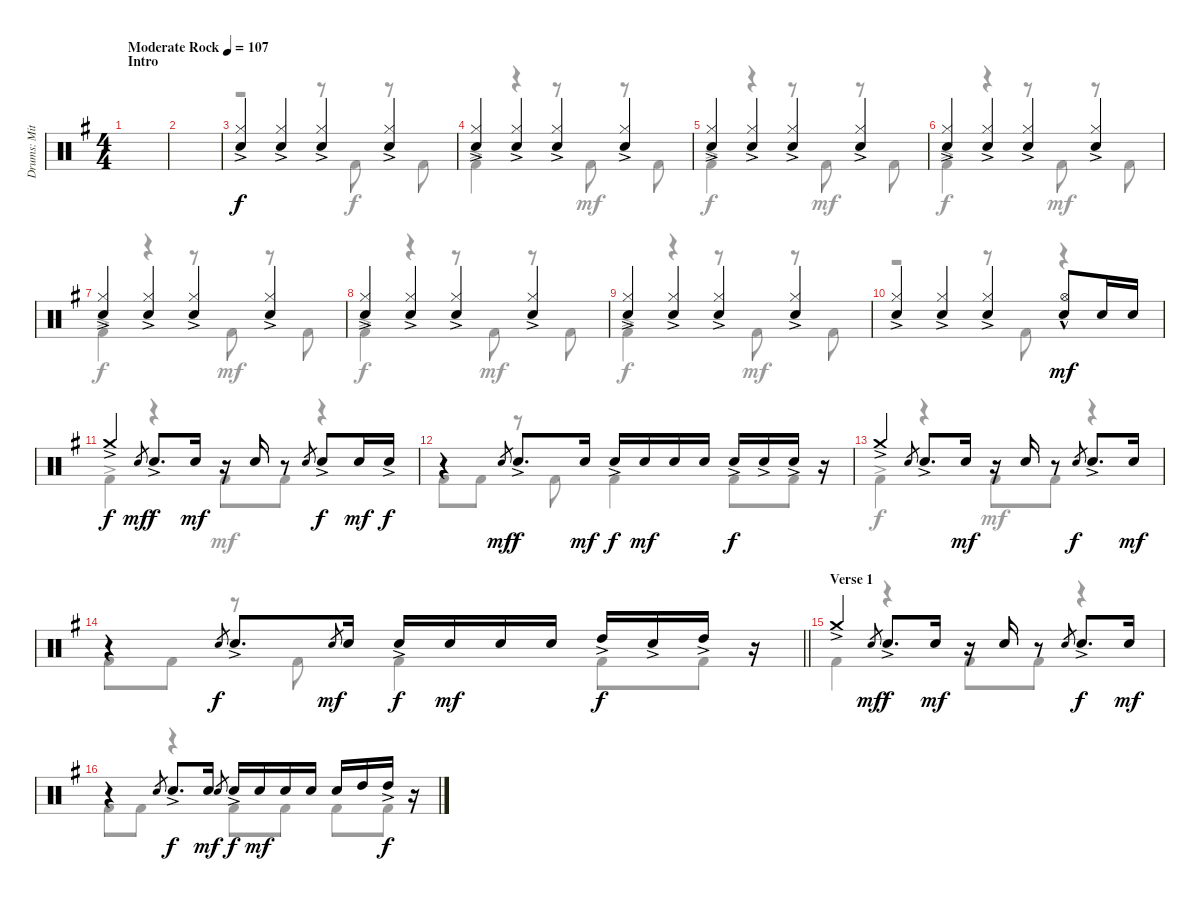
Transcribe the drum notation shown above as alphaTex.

\track ("Drums: Mitch Mitchell" "Drums: Mit") {instrument percussion}
\staff {score}
\articulation defaults
\voice
\ts (4 4)
\section ("" "Intro")
\tempo (107 "Moderate Rock")
\clef neutral
\ks g
|
|
("Hi-Hat (closed)"{ac} "Snare (hit) 2"{ac}).4 ("Hi-Hat (closed)"{ac} "Snare (hit) 2"{ac}).4 ("Hi-Hat (closed)"{ac} "Snare (hit) 2"{ac}).4 ("Hi-Hat (closed)"{ac} "Snare (hit) 2"{ac}).4 |
("Hi-Hat (closed)"{ac} "Snare (hit) 2"{ac}).4 ("Hi-Hat (closed)"{ac} "Snare (hit) 2"{ac}).4 ("Hi-Hat (closed)"{ac} "Snare (hit) 2"{ac}).4 ("Hi-Hat (closed)"{ac} "Snare (hit) 2"{ac}).4 |
("Hi-Hat (closed)"{ac} "Snare (hit) 2"{ac}).4 ("Hi-Hat (closed)"{ac} "Snare (hit) 2"{ac}).4 ("Hi-Hat (closed)"{ac} "Snare (hit) 2"{ac}).4 ("Hi-Hat (closed)"{ac} "Snare (hit) 2"{ac}).4 |
("Hi-Hat (closed)"{ac} "Snare (hit) 2"{ac}).4 ("Hi-Hat (closed)"{ac} "Snare (hit) 2"{ac}).4 ("Hi-Hat (closed)"{ac} "Snare (hit) 2"{ac}).4 ("Hi-Hat (closed)"{ac} "Snare (hit) 2"{ac}).4 |
("Hi-Hat (closed)"{ac} "Snare (hit) 2"{ac}).4 ("Hi-Hat (closed)"{ac} "Snare (hit) 2"{ac}).4 ("Hi-Hat (closed)"{ac} "Snare (hit) 2"{ac}).4 ("Hi-Hat (closed)"{ac} "Snare (hit) 2"{ac}).4 |
("Hi-Hat (closed)"{ac} "Snare (hit) 2"{ac}).4 ("Hi-Hat (closed)"{ac} "Snare (hit) 2"{ac}).4 ("Hi-Hat (closed)"{ac} "Snare (hit) 2"{ac}).4 ("Hi-Hat (closed)"{ac} "Snare (hit) 2"{ac}).4 |
("Hi-Hat (closed)"{ac} "Snare (hit) 2"{ac}).4 ("Hi-Hat (closed)"{ac} "Snare (hit) 2"{ac}).4 ("Hi-Hat (closed)"{ac} "Snare (hit) 2"{ac}).4 ("Hi-Hat (closed)"{ac} "Snare (hit) 2"{ac}).4 |
("Hi-Hat (closed)"{ac} "Snare (hit) 2"{ac}).4 ("Hi-Hat (closed)"{ac} "Snare (hit) 2"{ac}).4 ("Hi-Hat (closed)"{ac} "Snare (hit) 2"{ac}).4 ("Hi-Hat (open)"{hac} "Snare (hit) 2").8{dy mf} "Snare (hit) 2".16 "Snare (hit) 2".16 |
"Crash medium (hit)"{ac}.4{dy f} "Snare (hit) 2".8{gr dy mf} "Snare (hit) 2"{ac}.8{d dy f} "Snare (hit) 2".16{dy mf} r.16 "Snare (hit) 2".16 r.8 "Snare (hit) 2".8{gr} "Snare (hit) 2"{ac}.8{dy f} "Snare (hit) 2".16{dy mf} "Snare (hit) 2"{ac}.16{dy f} |
r.4 "Snare (hit) 2".8{gr dy mf} "Snare (hit) 2"{ac}.8{d dy f} "Snare (hit) 2".16{dy mf} "Snare (hit) 2"{ac}.16{dy f} "Snare (hit) 2".16{dy mf} "Snare (hit) 2".16 "Snare (hit) 2".16 "Snare (hit) 2"{ac}.16{dy f} "Snare (hit) 2"{ac}.16 "Snare (hit) 2"{ac}.16 r.16 |
"Crash medium (hit)"{ac}.4 "Snare (hit) 2".8{gr} "Snare (hit) 2"{ac}.8{d} "Snare (hit) 2".16{dy mf} r.16 "Snare (hit) 2".16 r.8 "Snare (hit) 2".8{gr dy f} "Snare (hit) 2"{ac}.8{d} "Snare (hit) 2".16{dy mf} |
\barLineRight lightlight
r.4 "Snare (hit) 2".8{gr dy f} "Snare (hit) 2"{ac}.8{d} "Snare (hit) 2".8{gr dy mf} "Snare (hit) 2".16 "Snare (hit) 2"{ac}.16{dy f} "Snare (hit) 2".16{dy mf} "Snare (hit) 2".16 "Snare (hit) 2".16 "High Tom (hit)"{ac}.16{dy f} "Snare (hit) 2"{ac}.16 "High Tom (hit)"{ac}.16 r.16 |
\section ("" "Verse 1")
"Crash medium (hit)"{ac}.4 "Snare (hit) 2".8{gr dy mf} "Snare (hit) 2"{ac}.8{d dy f} "Snare (hit) 2".16{dy mf} r.16 "Snare (hit) 2".16 r.8 "Snare (hit) 2".8{gr} "Snare (hit) 2"{ac}.8{d dy f} "Snare (hit) 2".16{dy mf} |
r.4 "Snare (hit) 2".8{gr} "Snare (hit) 2"{ac}.8{d dy f} "Snare (hit) 2".16{dy mf} "Snare (hit) 2".8{gr} "Snare (hit) 2"{ac}.16{dy f} "Snare (hit) 2".16{dy mf} "Snare (hit) 2".16 "Snare (hit) 2".16 "Snare (hit) 2".16 "High Tom (hit)".16 "High Tom (hit)"{ac}.16{dy f} r.16
\voice
\clef neutral
\ottava regular
\simile none
\ks g
|
|
r.2 r.8 "Kick (hit) 2".8 r.8 "Kick (hit) 2".8 |
"Kick (hit) 2"{ac}.4{dy f} r.4 r.8 "Kick (hit) 2".8{dy mf} r.8 "Kick (hit) 2".8 |
"Kick (hit) 2"{ac}.4{dy f} r.4 r.8 "Kick (hit) 2".8{dy mf} r.8 "Kick (hit) 2".8 |
"Kick (hit) 2"{ac}.4{dy f} r.4 r.8 "Kick (hit) 2".8{dy mf} r.8 "Kick (hit) 2".8 |
"Kick (hit) 2"{ac}.4{dy f} r.4 r.8 "Kick (hit) 2".8{dy mf} r.8 "Kick (hit) 2".8 |
"Kick (hit) 2"{ac}.4{dy f} r.4 r.8 "Kick (hit) 2".8{dy mf} r.8 "Kick (hit) 2".8 |
"Kick (hit) 2"{ac}.4{dy f} r.4 r.8 "Kick (hit) 2".8{dy mf} r.8 "Kick (hit) 2".8 |
r.2 r.8 "Kick (hit) 2".8 r.4 |
"Kick (hit) 2"{ac}.4{dy f} r.4 "Kick (hit) 2".8{dy mf} "Kick (hit) 2".8 r.4 |
"Kick (hit) 2".8 "Kick (hit) 2".8 r.8 "Kick (hit) 2".8 "Kick (hit) 2".4 "Kick (hit) 2".8 "Kick (hit) 2".8 |
"Kick (hit) 2"{ac}.4{dy f} r.4 "Kick (hit) 2".8{dy mf} "Kick (hit) 2".8 r.4 |
\barLineRight lightlight "Kick (hit) 2".8 "Kick (hit) 2".8
r.8 "Kick (hit) 2".8 "Kick (hit) 2".4 "Kick (hit) 2".8 "Kick (hit) 2".8 |
"Kick (hit) 2".4 r.4 "Kick (hit) 2".8 "Kick (hit) 2".8 r.4 |
"Kick (hit) 2".8 "Kick (hit) 2".8 r.4 "Kick (hit) 2".8 "Kick (hit) 2".8 "Kick (hit) 2".8 "Kick (hit) 2".8
